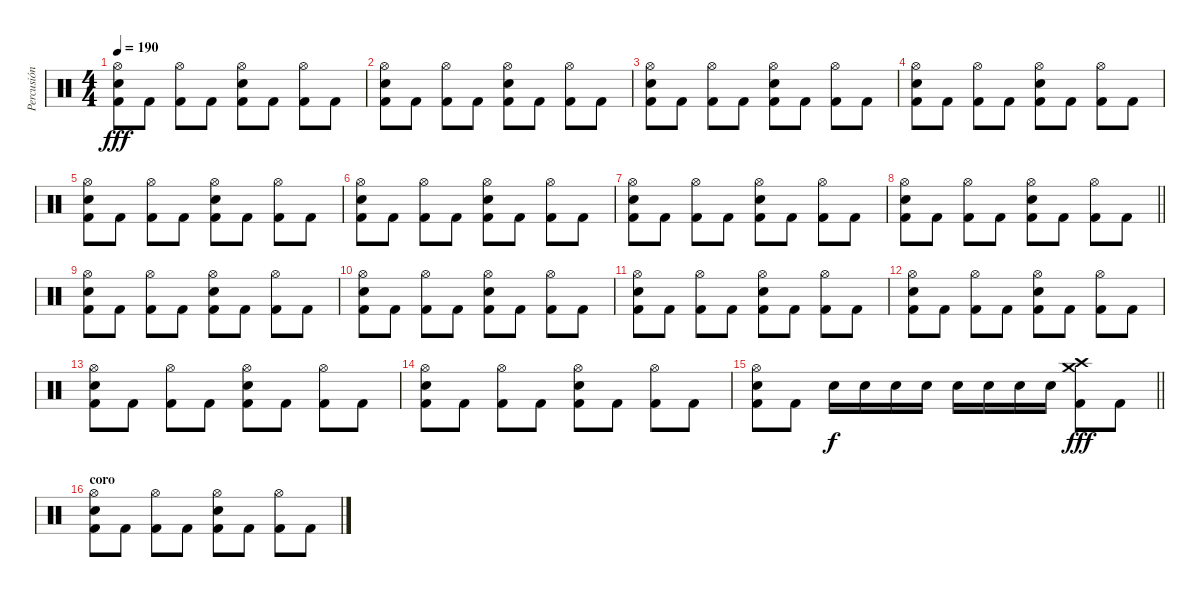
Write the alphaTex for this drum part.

\track ("Percusión" "Percusión") {instrument percussion}
\staff {score}
\articulation defaults
\ts (4 4)
\tempo 190
\clef neutral
\ks c
("Hi-Hat (open)" "Electric Snare (hit)" "Kick (hit) 2").8{dy fff} "Kick (hit) 2".8 ("Hi-Hat (open)" "Kick (hit) 2").8 "Kick (hit) 2".8 ("Hi-Hat (open)" "Electric Snare (hit)" "Kick (hit) 2").8 "Kick (hit) 2".8 ("Hi-Hat (open)" "Kick (hit) 2").8 "Kick (hit) 2".8 |
("Hi-Hat (open)" "Electric Snare (hit)" "Kick (hit) 2").8 "Kick (hit) 2".8 ("Hi-Hat (open)" "Kick (hit) 2").8 "Kick (hit) 2".8 ("Hi-Hat (open)" "Electric Snare (hit)" "Kick (hit) 2").8 "Kick (hit) 2".8 ("Hi-Hat (open)" "Kick (hit) 2").8 "Kick (hit) 2".8 |
("Hi-Hat (open)" "Electric Snare (hit)" "Kick (hit) 2").8 "Kick (hit) 2".8 ("Hi-Hat (open)" "Kick (hit) 2").8 "Kick (hit) 2".8 ("Hi-Hat (open)" "Electric Snare (hit)" "Kick (hit) 2").8 "Kick (hit) 2".8 ("Hi-Hat (open)" "Kick (hit) 2").8 "Kick (hit) 2".8 |
("Hi-Hat (open)" "Electric Snare (hit)" "Kick (hit) 2").8 "Kick (hit) 2".8 ("Hi-Hat (open)" "Kick (hit) 2").8 "Kick (hit) 2".8 ("Hi-Hat (open)" "Electric Snare (hit)" "Kick (hit) 2").8 "Kick (hit) 2".8 ("Hi-Hat (open)" "Kick (hit) 2").8 "Kick (hit) 2".8 |
("Hi-Hat (open)" "Electric Snare (hit)" "Kick (hit) 2").8 "Kick (hit) 2".8 ("Hi-Hat (open)" "Kick (hit) 2").8 "Kick (hit) 2".8 ("Hi-Hat (open)" "Electric Snare (hit)" "Kick (hit) 2").8 "Kick (hit) 2".8 ("Hi-Hat (open)" "Kick (hit) 2").8 "Kick (hit) 2".8 |
("Hi-Hat (open)" "Electric Snare (hit)" "Kick (hit) 2").8 "Kick (hit) 2".8 ("Hi-Hat (open)" "Kick (hit) 2").8 "Kick (hit) 2".8 ("Hi-Hat (open)" "Electric Snare (hit)" "Kick (hit) 2").8 "Kick (hit) 2".8 ("Hi-Hat (open)" "Kick (hit) 2").8 "Kick (hit) 2".8 |
("Hi-Hat (open)" "Electric Snare (hit)" "Kick (hit) 2").8 "Kick (hit) 2".8 ("Hi-Hat (open)" "Kick (hit) 2").8 "Kick (hit) 2".8 ("Hi-Hat (open)" "Electric Snare (hit)" "Kick (hit) 2").8 "Kick (hit) 2".8 ("Hi-Hat (open)" "Kick (hit) 2").8 "Kick (hit) 2".8 |
\barLineRight lightlight
("Hi-Hat (open)" "Electric Snare (hit)" "Kick (hit) 2").8 "Kick (hit) 2".8 ("Hi-Hat (open)" "Kick (hit) 2").8 "Kick (hit) 2".8 ("Hi-Hat (open)" "Electric Snare (hit)" "Kick (hit) 2").8 "Kick (hit) 2".8 ("Hi-Hat (open)" "Kick (hit) 2").8 "Kick (hit) 2".8 |
("Hi-Hat (open)" "Electric Snare (hit)" "Kick (hit) 2").8 "Kick (hit) 2".8 ("Hi-Hat (open)" "Kick (hit) 2").8 "Kick (hit) 2".8 ("Hi-Hat (open)" "Electric Snare (hit)" "Kick (hit) 2").8 "Kick (hit) 2".8 ("Hi-Hat (open)" "Kick (hit) 2").8 "Kick (hit) 2".8 |
("Hi-Hat (open)" "Electric Snare (hit)" "Kick (hit) 2").8 "Kick (hit) 2".8 ("Hi-Hat (open)" "Kick (hit) 2").8 "Kick (hit) 2".8 ("Hi-Hat (open)" "Electric Snare (hit)" "Kick (hit) 2").8 "Kick (hit) 2".8 ("Hi-Hat (open)" "Kick (hit) 2").8 "Kick (hit) 2".8 |
("Hi-Hat (open)" "Electric Snare (hit)" "Kick (hit) 2").8 "Kick (hit) 2".8 ("Hi-Hat (open)" "Kick (hit) 2").8 "Kick (hit) 2".8 ("Hi-Hat (open)" "Electric Snare (hit)" "Kick (hit) 2").8 "Kick (hit) 2".8 ("Hi-Hat (open)" "Kick (hit) 2").8 "Kick (hit) 2".8 |
("Hi-Hat (open)" "Electric Snare (hit)" "Kick (hit) 2").8 "Kick (hit) 2".8 ("Hi-Hat (open)" "Kick (hit) 2").8 "Kick (hit) 2".8 ("Hi-Hat (open)" "Electric Snare (hit)" "Kick (hit) 2").8 "Kick (hit) 2".8 ("Hi-Hat (open)" "Kick (hit) 2").8 "Kick (hit) 2".8 |
("Hi-Hat (open)" "Electric Snare (hit)" "Kick (hit) 2").8 "Kick (hit) 2".8 ("Hi-Hat (open)" "Kick (hit) 2").8 "Kick (hit) 2".8 ("Hi-Hat (open)" "Electric Snare (hit)" "Kick (hit) 2").8 "Kick (hit) 2".8 ("Hi-Hat (open)" "Kick (hit) 2").8 "Kick (hit) 2".8 |
("Hi-Hat (open)" "Electric Snare (hit)" "Kick (hit) 2").8 "Kick (hit) 2".8 ("Hi-Hat (open)" "Kick (hit) 2").8 "Kick (hit) 2".8 ("Hi-Hat (open)" "Electric Snare (hit)" "Kick (hit) 2").8 "Kick (hit) 2".8 ("Hi-Hat (open)" "Kick (hit) 2").8 "Kick (hit) 2".8 |
\barLineRight lightlight
("Hi-Hat (open)" "Electric Snare (hit)" "Kick (hit) 2").8 "Kick (hit) 2".8 "Snare (hit) 2".16{dy f} "Snare (hit) 2".16 "Snare (hit) 2".16 "Snare (hit) 2".16 "Snare (hit) 2".16 "Snare (hit) 2".16 "Snare (hit) 2".16 "Snare (hit) 2".16 ("Crash high (hit)" "Crash medium (hit)" "Kick (hit) 2").8{dy fff} "Kick (hit) 2".8 |
\section ("" "coro")
("Hi-Hat (open)" "Electric Snare (hit)" "Kick (hit) 2").8 "Kick (hit) 2".8 ("Hi-Hat (open)" "Kick (hit) 2").8 "Kick (hit) 2".8 ("Hi-Hat (open)" "Electric Snare (hit)" "Kick (hit) 2").8 "Kick (hit) 2".8 ("Hi-Hat (open)" "Kick (hit) 2").8 "Kick (hit) 2".8
